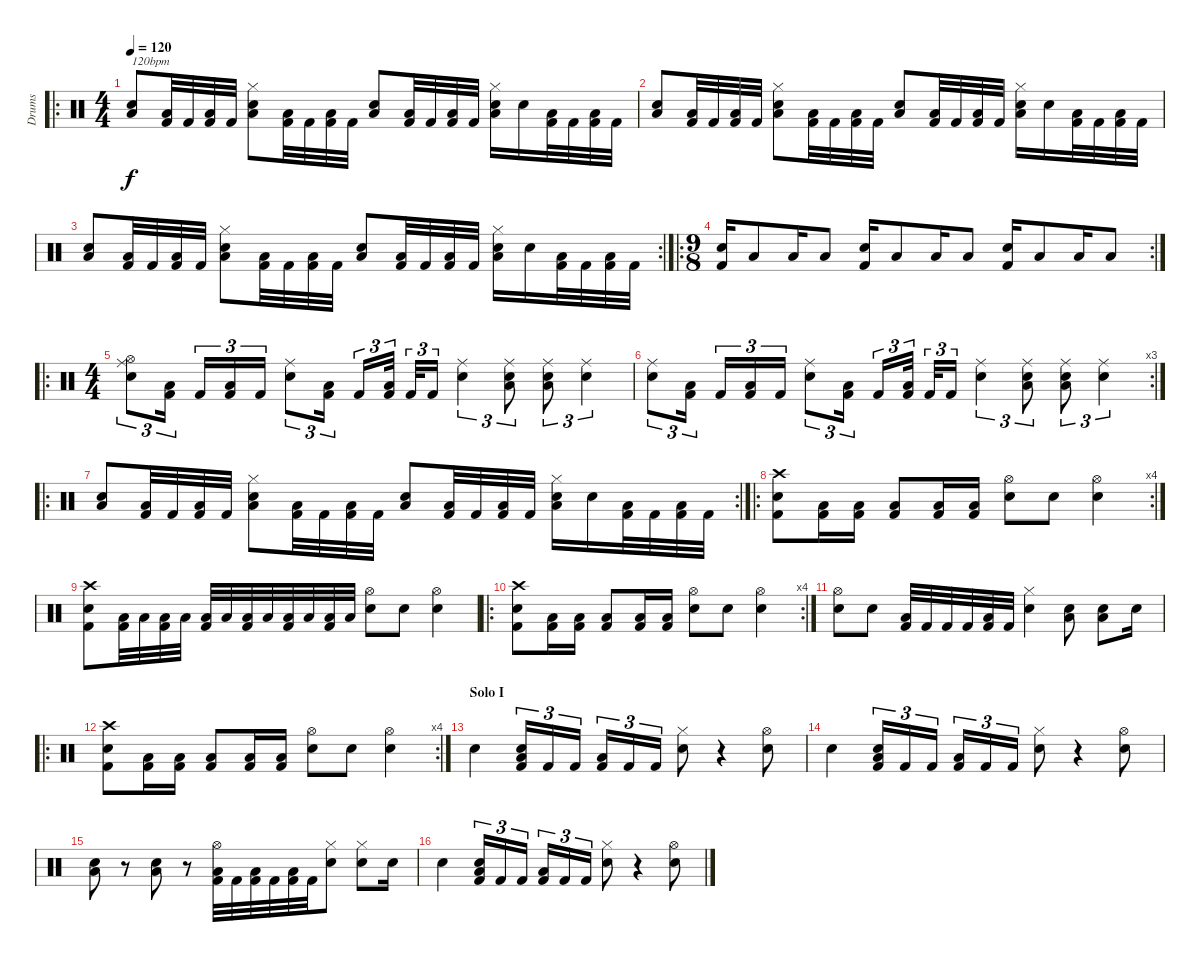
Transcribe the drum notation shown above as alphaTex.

\track ("Drums" "Drums") {instrument percussion}
\staff {score}
\articulation defaults
\ro
\ts (4 4)
\tempo 120
\clef neutral
\ks c
("Snare (hit) 2" "Low Tom (hit)").8{txt "120bpm" dy f} ("Kick (hit) 2" "Low Tom (hit)").32 "Kick (hit) 2".32 ("Kick (hit) 2" "Low Tom (hit)").32 "Kick (hit) 2".32 ("Snare (hit) 2" "Low Tom (hit)" "Hi-Hat (closed)").8 ("Kick (hit) 2" "Low Tom (hit)").32 "Kick (hit) 2".32 ("Kick (hit) 2" "Low Tom (hit)").32 "Kick (hit) 2".32 ("Snare (hit) 2" "Low Tom (hit)").8 ("Kick (hit) 2" "Low Tom (hit)").32 "Kick (hit) 2".32 ("Kick (hit) 2" "Low Tom (hit)").32 "Kick (hit) 2".32 ("Snare (hit) 2" "Low Tom (hit)" "Hi-Hat (closed)").16 "Snare (hit) 2".16 ("Kick (hit) 2" "Low Tom (hit)").32 "Kick (hit) 2".32 ("Kick (hit) 2" "Low Tom (hit)").32 "Kick (hit) 2".32 |
("Snare (hit) 2" "Low Tom (hit)").8 ("Kick (hit) 2" "Low Tom (hit)").32 "Kick (hit) 2".32 ("Kick (hit) 2" "Low Tom (hit)").32 "Kick (hit) 2".32 ("Snare (hit) 2" "Low Tom (hit)" "Hi-Hat (closed)").8 ("Kick (hit) 2" "Low Tom (hit)").32 "Kick (hit) 2".32 ("Kick (hit) 2" "Low Tom (hit)").32 "Kick (hit) 2".32 ("Snare (hit) 2" "Low Tom (hit)").8 ("Kick (hit) 2" "Low Tom (hit)").32 "Kick (hit) 2".32 ("Kick (hit) 2" "Low Tom (hit)").32 "Kick (hit) 2".32 ("Snare (hit) 2" "Low Tom (hit)" "Hi-Hat (closed)").16 "Snare (hit) 2".16 ("Kick (hit) 2" "Low Tom (hit)").32 "Kick (hit) 2".32 ("Kick (hit) 2" "Low Tom (hit)").32 "Kick (hit) 2".32 |
\rc 2
("Snare (hit) 2" "Low Tom (hit)").8 ("Kick (hit) 2" "Low Tom (hit)").32 "Kick (hit) 2".32 ("Kick (hit) 2" "Low Tom (hit)").32 "Kick (hit) 2".32 ("Snare (hit) 2" "Low Tom (hit)" "Hi-Hat (closed)").8 ("Kick (hit) 2" "Low Tom (hit)").32 "Kick (hit) 2".32 ("Kick (hit) 2" "Low Tom (hit)").32 "Kick (hit) 2".32 ("Snare (hit) 2" "Low Tom (hit)").8 ("Kick (hit) 2" "Low Tom (hit)").32 "Kick (hit) 2".32 ("Kick (hit) 2" "Low Tom (hit)").32 "Kick (hit) 2".32 ("Snare (hit) 2" "Low Tom (hit)" "Hi-Hat (closed)").16 "Snare (hit) 2".16 ("Kick (hit) 2" "Low Tom (hit)").32 "Kick (hit) 2".32 ("Kick (hit) 2" "Low Tom (hit)").32 "Kick (hit) 2".32 |
\ro
\rc 2
\ts (9 8)
("Snare (hit) 2" "Kick (hit) 2").16 "Low Tom (hit)".8 "Low Tom (hit)".16 "Low Tom (hit)".8 ("Snare (hit) 2" "Kick (hit) 2").16 "Low Tom (hit)".8 "Low Tom (hit)".16 "Low Tom (hit)".8 ("Snare (hit) 2" "Kick (hit) 2").16 "Low Tom (hit)".8 "Low Tom (hit)".16 "Low Tom (hit)".8 |
\ro
\ts (4 4)
("Snare (hit) 2" "Ride (middle)" "Hi-Hat (open)").8{tu (3 2)} ("Kick (hit) 2" "Low Tom (hit)").16{tu (3 2)} "Kick (hit) 2".16{tu (3 2)} ("Kick (hit) 2" "Low Tom (hit)").16{tu (3 2)} "Kick (hit) 2".16{tu (3 2)} ("Snare (hit) 2" "Ride (middle)").8{tu (3 2)} ("Kick (hit) 2" "Low Tom (hit)").16{tu (3 2)} "Kick (hit) 2".16{tu (3 2)} ("Kick (hit) 2" "Low Tom (hit)").32{tu (3 2)} "Kick (hit) 2".32{tu (3 2)} "Kick (hit) 2".16{tu (3 2)} ("Snare (hit) 2" "Ride (middle)").4{tu (3 2)} ("Snare (hit) 2" "Ride (middle)" "Low Tom (hit)").8{tu (3 2)} ("Snare (hit) 2" "Ride (middle)" "Low Tom (hit)").8{tu (3 2)} ("Snare (hit) 2" "Ride (middle)").4{tu (3 2)} |
\rc 3
("Snare (hit) 2" "Ride (middle)").8{tu (3 2)} ("Kick (hit) 2" "Low Tom (hit)").16{tu (3 2)} "Kick (hit) 2".16{tu (3 2)} ("Kick (hit) 2" "Low Tom (hit)").16{tu (3 2)} "Kick (hit) 2".16{tu (3 2)} ("Snare (hit) 2" "Ride (middle)").8{tu (3 2)} ("Kick (hit) 2" "Low Tom (hit)").16{tu (3 2)} "Kick (hit) 2".16{tu (3 2)} ("Kick (hit) 2" "Low Tom (hit)").32{tu (3 2)} "Kick (hit) 2".32{tu (3 2)} "Kick (hit) 2".16{tu (3 2)} ("Snare (hit) 2" "Ride (middle)").4{tu (3 2)} ("Snare (hit) 2" "Ride (middle)" "Low Tom (hit)").8{tu (3 2)} ("Snare (hit) 2" "Ride (middle)" "Low Tom (hit)").8{tu (3 2)} ("Snare (hit) 2" "Ride (middle)").4{tu (3 2)} |
\ro
\rc 2
("Snare (hit) 2" "Low Tom (hit)").8 ("Kick (hit) 2" "Low Tom (hit)").32 "Kick (hit) 2".32 ("Kick (hit) 2" "Low Tom (hit)").32 "Kick (hit) 2".32 ("Snare (hit) 2" "Low Tom (hit)" "Hi-Hat (closed)").8 ("Kick (hit) 2" "Low Tom (hit)").32 "Kick (hit) 2".32 ("Kick (hit) 2" "Low Tom (hit)").32 "Kick (hit) 2".32 ("Snare (hit) 2" "Low Tom (hit)").8 ("Kick (hit) 2" "Low Tom (hit)").32 "Kick (hit) 2".32 ("Kick (hit) 2" "Low Tom (hit)").32 "Kick (hit) 2".32 ("Snare (hit) 2" "Low Tom (hit)" "Hi-Hat (closed)").16 "Snare (hit) 2".16 ("Kick (hit) 2" "Low Tom (hit)").32 "Kick (hit) 2".32 ("Kick (hit) 2" "Low Tom (hit)").32 "Kick (hit) 2".32 |
\ro
\rc 4
("Crash high (hit)" "Snare (hit) 2" "Kick (hit) 2").8 ("Kick (hit) 2" "Low Tom (hit)").16 ("Kick (hit) 2" "Low Tom (hit)").16 ("Kick (hit) 2" "Low Tom (hit)").8 ("Kick (hit) 2" "Low Tom (hit)").16 ("Kick (hit) 2" "Low Tom (hit)").16 ("Snare (hit) 2" "Hi-Hat (open)").8 "Snare (hit) 2".8 ("Snare (hit) 2" "Hi-Hat (open)").4 |
("Crash high (hit)" "Snare (hit) 2" "Kick (hit) 2").8 ("Kick (hit) 2" "Low Tom (hit)").32 "Low Tom (hit)".32 ("Kick (hit) 2" "Low Tom (hit)").32 "Low Tom (hit)".32 ("Kick (hit) 2" "Low Tom (hit)").32 "Low Tom (hit)".32 ("Kick (hit) 2" "Low Tom (hit)").32 "Low Tom (hit)".32 ("Kick (hit) 2" "Low Tom (hit)").32 "Low Tom (hit)".32 ("Kick (hit) 2" "Low Tom (hit)").32 "Low Tom (hit)".32 ("Snare (hit) 2" "Hi-Hat (open)").8 "Snare (hit) 2".8 ("Snare (hit) 2" "Hi-Hat (open)").4 |
\ro
\rc 4
("Crash high (hit)" "Snare (hit) 2" "Kick (hit) 2").8 ("Kick (hit) 2" "Low Tom (hit)").16 ("Kick (hit) 2" "Low Tom (hit)").16 ("Kick (hit) 2" "Low Tom (hit)").8 ("Kick (hit) 2" "Low Tom (hit)").16 ("Kick (hit) 2" "Low Tom (hit)").16 ("Snare (hit) 2" "Hi-Hat (open)").8 "Snare (hit) 2".8 ("Snare (hit) 2" "Hi-Hat (open)").4 |
("Snare (hit) 2" "Hi-Hat (open)").8 "Snare (hit) 2".8 ("Kick (hit) 2" "Low Tom (hit)").32 "Kick (hit) 2".32 "Kick (hit) 2".32 "Kick (hit) 2".32 ("Kick (hit) 2" "Low Tom (hit)").32 "Kick (hit) 2".32 ("Snare (hit) 2" "Hi-Hat (closed)").4 ("Snare (hit) 2" "Low Tom (hit)").8 ("Snare (hit) 2" "Low Tom (hit)").8 "Snare (hit) 2".16 |
\ro
\rc 4
("Crash high (hit)" "Snare (hit) 2" "Kick (hit) 2").8 ("Kick (hit) 2" "Low Tom (hit)").16 ("Kick (hit) 2" "Low Tom (hit)").16 ("Kick (hit) 2" "Low Tom (hit)").8 ("Kick (hit) 2" "Low Tom (hit)").16 ("Kick (hit) 2" "Low Tom (hit)").16 ("Snare (hit) 2" "Hi-Hat (open)").8 "Snare (hit) 2".8 ("Snare (hit) 2" "Hi-Hat (open)").4 |
\section ("" "Solo I")
"Snare (hit) 2".4 ("Snare (hit) 2" "Kick (hit) 2" "Low Tom (hit)").16{tu (3 2)} "Kick (hit) 2".16{tu (3 2)} "Kick (hit) 2".16{tu (3 2)} ("Kick (hit) 2" "Low Tom (hit)").16{tu (3 2)} "Kick (hit) 2".16{tu (3 2)} "Kick (hit) 2".16{tu (3 2)} ("Snare (hit) 2" "Hi-Hat (closed)").8 r.4 ("Snare (hit) 2" "Hi-Hat (open)").8 |
"Snare (hit) 2".4 ("Snare (hit) 2" "Kick (hit) 2" "Low Tom (hit)").16{tu (3 2)} "Kick (hit) 2".16{tu (3 2)} "Kick (hit) 2".16{tu (3 2)} ("Kick (hit) 2" "Low Tom (hit)").16{tu (3 2)} "Kick (hit) 2".16{tu (3 2)} "Kick (hit) 2".16{tu (3 2)} ("Snare (hit) 2" "Hi-Hat (closed)").8 r.4 ("Snare (hit) 2" "Hi-Hat (open)").8 |
("Snare (hit) 2" "Low Tom (hit)").8 r.8 ("Snare (hit) 2" "Low Tom (hit)").8 r.8 ("Kick (hit) 2" "Hi-Hat (open)" "Low Tom (hit)").32 "Kick (hit) 2".32 ("Kick (hit) 2" "Low Tom (hit)").32 "Kick (hit) 2".32 ("Kick (hit) 2" "Low Tom (hit)").32 "Kick (hit) 2".32 ("Snare (hit) 2" "Hi-Hat (closed)").8 ("Snare (hit) 2" "Hi-Hat (closed)").8 "Snare (hit) 2".16 |
"Snare (hit) 2".4 ("Snare (hit) 2" "Kick (hit) 2" "Low Tom (hit)").16{tu (3 2)} "Kick (hit) 2".16{tu (3 2)} "Kick (hit) 2".16{tu (3 2)} ("Kick (hit) 2" "Low Tom (hit)").16{tu (3 2)} "Kick (hit) 2".16{tu (3 2)} "Kick (hit) 2".16{tu (3 2)} ("Snare (hit) 2" "Hi-Hat (closed)").8 r.4 ("Snare (hit) 2" "Hi-Hat (open)").8
